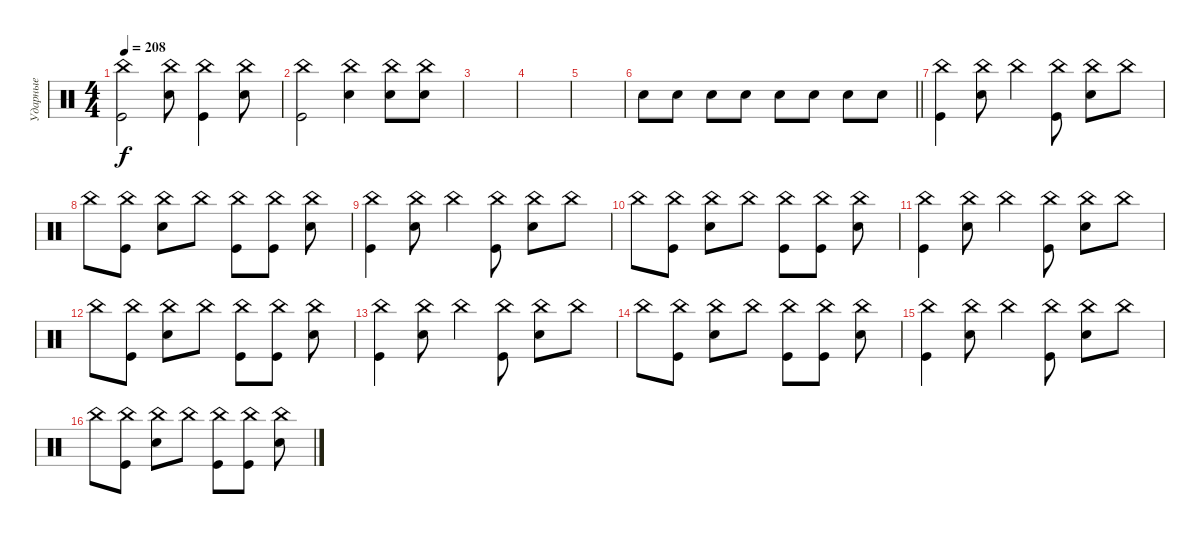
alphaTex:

\track ("Ударные" "Ударные") {instrument percussion}
\staff {score}
\articulation defaults
\ts (4 4)
\tempo 208
\clef neutral
\ks c
("Kick (hit)" "China (hit)").2{dy f} ("Snare (hit) 2" "China (hit)").8 ("Kick (hit)" "China (hit)").4 ("Snare (hit) 2" "China (hit)").8 |
("Kick (hit)" "China (hit)").2 ("Snare (hit) 2" "China (hit)").4 ("Snare (hit) 2" "China (hit)").8 ("Snare (hit) 2" "China (hit)").8 |
|
|
|
\barLineRight lightlight "Snare (hit) 2".8 "Snare (hit) 2".8 "Snare (hit) 2".8 "Snare (hit) 2".8 "Snare (hit) 2".8 "Snare (hit) 2".8 "Snare (hit) 2".8 "Snare (hit) 2".8
|
("Kick (hit)" "China (hit)").4 ("Snare (hit) 2" "China (hit)").8 "China (hit)".4 ("Kick (hit)" "China (hit)").8 ("Snare (hit) 2" "China (hit)").8 "China (hit)".8 |
"China (hit)".8 ("Kick (hit)" "China (hit)").8 ("Snare (hit) 2" "China (hit)").8 "China (hit)".8 ("Kick (hit)" "China (hit)").8 ("Kick (hit)" "China (hit)").8 ("Snare (hit) 2" "China (hit)").8 |
("Kick (hit)" "China (hit)").4 ("Snare (hit) 2" "China (hit)").8 "China (hit)".4 ("Kick (hit)" "China (hit)").8 ("Snare (hit) 2" "China (hit)").8 "China (hit)".8 |
"China (hit)".8 ("Kick (hit)" "China (hit)").8 ("Snare (hit) 2" "China (hit)").8 "China (hit)".8 ("Kick (hit)" "China (hit)").8 ("Kick (hit)" "China (hit)").8 ("Snare (hit) 2" "China (hit)").8 |
("Kick (hit)" "China (hit)").4 ("Snare (hit) 2" "China (hit)").8 "China (hit)".4 ("Kick (hit)" "China (hit)").8 ("Snare (hit) 2" "China (hit)").8 "China (hit)".8 |
"China (hit)".8 ("Kick (hit)" "China (hit)").8 ("Snare (hit) 2" "China (hit)").8 "China (hit)".8 ("Kick (hit)" "China (hit)").8 ("Kick (hit)" "China (hit)").8 ("Snare (hit) 2" "China (hit)").8 |
("Kick (hit)" "China (hit)").4 ("Snare (hit) 2" "China (hit)").8 "China (hit)".4 ("Kick (hit)" "China (hit)").8 ("Snare (hit) 2" "China (hit)").8 "China (hit)".8 |
"China (hit)".8 ("Kick (hit)" "China (hit)").8 ("Snare (hit) 2" "China (hit)").8 "China (hit)".8 ("Kick (hit)" "China (hit)").8 ("Kick (hit)" "China (hit)").8 ("Snare (hit) 2" "China (hit)").8 |
("Kick (hit)" "China (hit)").4 ("Snare (hit) 2" "China (hit)").8 "China (hit)".4 ("Kick (hit)" "China (hit)").8 ("Snare (hit) 2" "China (hit)").8 "China (hit)".8 |
"China (hit)".8 ("Kick (hit)" "China (hit)").8 ("Snare (hit) 2" "China (hit)").8 "China (hit)".8 ("Kick (hit)" "China (hit)").8 ("Kick (hit)" "China (hit)").8 ("Snare (hit) 2" "China (hit)").8
